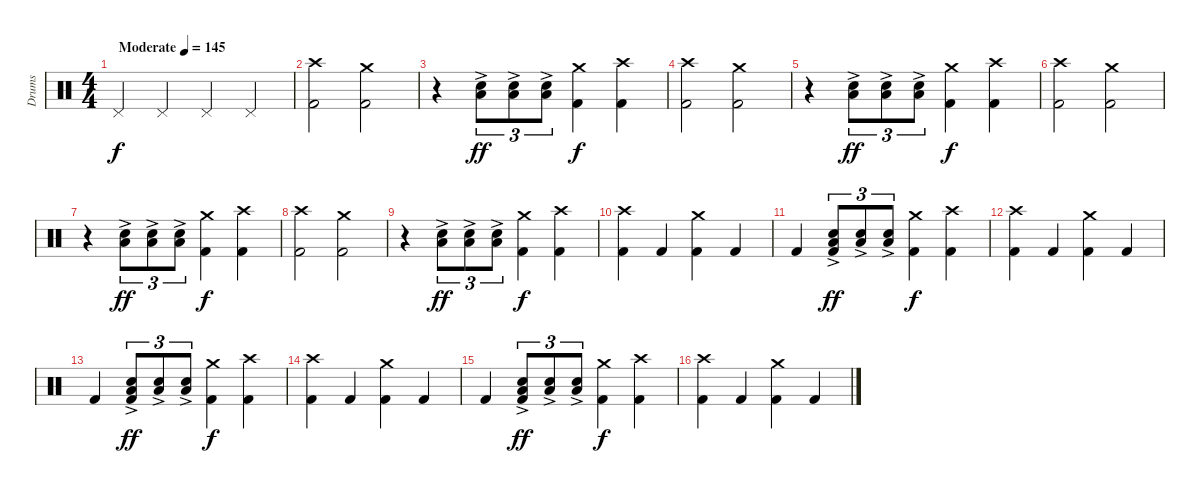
\track ("Drums" "Drums") {instrument percussion}
\staff {score}
\articulation defaults
\ts (4 4)
\tempo (145 "Moderate")
\clef neutral
\ks c "Pedal Hi-Hat (hit)".4{dy f} "Pedal Hi-Hat (hit)".4 "Pedal Hi-Hat (hit)".4 "Pedal Hi-Hat (hit)".4
|
("Crash high (hit)" "Kick (hit) 2").2 ("Crash medium (hit)" "Kick (hit) 2").2 |
r.4 ("Electric Snare (hit)"{ac} "Low Floor Tom (hit)").8{tu (3 2) dy ff} ("Electric Snare (hit)"{ac} "Low Floor Tom (hit)").8{tu (3 2)} ("Electric Snare (hit)"{ac} "Low Floor Tom (hit)").8{tu (3 2)} ("Crash medium (hit)" "Kick (hit) 2").4{dy f} ("Crash high (hit)" "Kick (hit) 2").4 |
("Crash high (hit)" "Kick (hit) 2").2 ("Crash medium (hit)" "Kick (hit) 2").2 |
r.4 ("Electric Snare (hit)"{ac} "Low Floor Tom (hit)").8{tu (3 2) dy ff} ("Electric Snare (hit)"{ac} "Low Floor Tom (hit)").8{tu (3 2)} ("Electric Snare (hit)"{ac} "Low Floor Tom (hit)").8{tu (3 2)} ("Crash medium (hit)" "Kick (hit) 2").4{dy f} ("Crash high (hit)" "Kick (hit) 2").4 |
("Crash high (hit)" "Kick (hit) 2").2 ("Crash medium (hit)" "Kick (hit) 2").2 |
r.4 ("Electric Snare (hit)"{ac} "Low Floor Tom (hit)").8{tu (3 2) dy ff} ("Electric Snare (hit)"{ac} "Low Floor Tom (hit)").8{tu (3 2)} ("Electric Snare (hit)"{ac} "Low Floor Tom (hit)").8{tu (3 2)} ("Crash medium (hit)" "Kick (hit) 2").4{dy f} ("Crash high (hit)" "Kick (hit) 2").4 |
("Crash high (hit)" "Kick (hit) 2").2 ("Crash medium (hit)" "Kick (hit) 2").2 |
r.4 ("Electric Snare (hit)"{ac} "Low Floor Tom (hit)").8{tu (3 2) dy ff} ("Electric Snare (hit)"{ac} "Low Floor Tom (hit)").8{tu (3 2)} ("Electric Snare (hit)"{ac} "Low Floor Tom (hit)").8{tu (3 2)} ("Crash medium (hit)" "Kick (hit) 2").4{dy f} ("Crash high (hit)" "Kick (hit) 2").4 |
("Crash high (hit)" "Kick (hit) 2").4 "Kick (hit) 2".4 ("Crash medium (hit)" "Kick (hit) 2").4 "Kick (hit) 2".4 |
"Kick (hit) 2".4 ("Electric Snare (hit)"{ac} "Low Floor Tom (hit)" "Kick (hit) 2").8{tu (3 2) dy ff} ("Electric Snare (hit)"{ac} "Low Floor Tom (hit)").8{tu (3 2)} ("Electric Snare (hit)"{ac} "Low Floor Tom (hit)").8{tu (3 2)} ("Crash medium (hit)" "Kick (hit) 2").4{dy f} ("Crash high (hit)" "Kick (hit) 2").4 |
("Crash high (hit)" "Kick (hit) 2").4 "Kick (hit) 2".4 ("Crash medium (hit)" "Kick (hit) 2").4 "Kick (hit) 2".4 |
"Kick (hit) 2".4 ("Electric Snare (hit)"{ac} "Low Floor Tom (hit)" "Kick (hit) 2").8{tu (3 2) dy ff} ("Electric Snare (hit)"{ac} "Low Floor Tom (hit)").8{tu (3 2)} ("Electric Snare (hit)"{ac} "Low Floor Tom (hit)").8{tu (3 2)} ("Crash medium (hit)" "Kick (hit) 2").4{dy f} ("Crash high (hit)" "Kick (hit) 2").4 |
("Crash high (hit)" "Kick (hit) 2").4 "Kick (hit) 2".4 ("Crash medium (hit)" "Kick (hit) 2").4 "Kick (hit) 2".4 |
"Kick (hit) 2".4 ("Electric Snare (hit)"{ac} "Low Floor Tom (hit)" "Kick (hit) 2").8{tu (3 2) dy ff} ("Electric Snare (hit)"{ac} "Low Floor Tom (hit)").8{tu (3 2)} ("Electric Snare (hit)"{ac} "Low Floor Tom (hit)").8{tu (3 2)} ("Crash medium (hit)" "Kick (hit) 2").4{dy f} ("Crash high (hit)" "Kick (hit) 2").4 |
("Crash high (hit)" "Kick (hit) 2").4 "Kick (hit) 2".4 ("Crash medium (hit)" "Kick (hit) 2").4 "Kick (hit) 2".4
